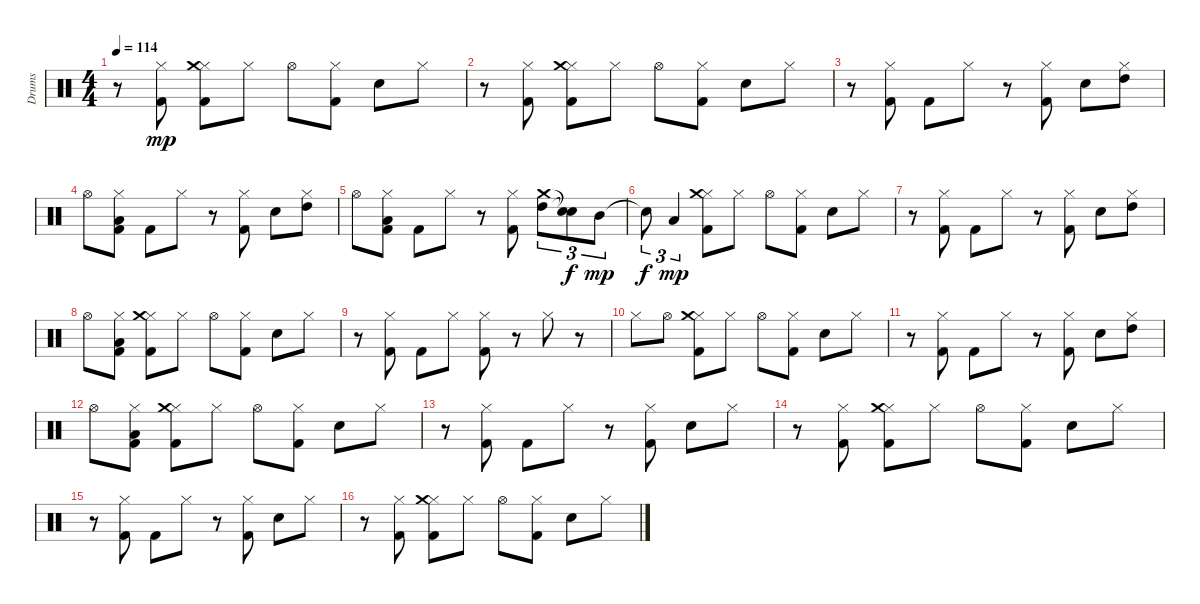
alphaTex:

\track ("Drums" "Drums") {instrument percussion}
\staff {score}
\articulation defaults
\ts (4 4)
\tempo 114
\clef neutral
\ks c
r.8{dy mp} ("Kick (hit) 2" "Hi-Hat (closed)").8 ("Kick (hit) 2" "Hi-Hat (closed)" "Crash medium (hit)").8 "Hi-Hat (closed)".8 "Hi-Hat (open)".8 ("Kick (hit) 2" "Hi-Hat (closed)").8 "Snare (hit) 2".8 "Hi-Hat (closed)".8 |
r.8 ("Kick (hit) 2" "Hi-Hat (closed)").8 ("Kick (hit) 2" "Hi-Hat (closed)" "Crash medium (hit)").8 "Hi-Hat (closed)".8 "Hi-Hat (open)".8 ("Kick (hit) 2" "Hi-Hat (closed)").8 "Snare (hit) 2".8 "Hi-Hat (closed)".8 |
r.8 ("Kick (hit) 2" "Hi-Hat (closed)").8 "Kick (hit) 2".8 "Hi-Hat (closed)".8 r.8 ("Kick (hit) 2" "Hi-Hat (closed)").8 "Snare (hit) 2".8 ("Hi-Hat (closed)" "High Tom (hit)").8 |
"Hi-Hat (open)".8 ("Kick (hit) 2" "Hi-Hat (closed)" "Low Tom (hit)").8 "Kick (hit) 2".8 "Hi-Hat (closed)".8 r.8 ("Kick (hit) 2" "Hi-Hat (closed)").8 "Snare (hit) 2".8 ("Hi-Hat (closed)" "High Tom (hit)").8 |
"Hi-Hat (open)".8 ("Kick (hit) 2" "Hi-Hat (closed)" "Low Tom (hit)").8 "Kick (hit) 2".8 "Hi-Hat (closed)".8 r.8 ("Kick (hit) 2" "Hi-Hat (closed)").8 ("High Tom (hit)" "Crash medium (hit)").8{tu (3 2)} ("Snare (hit)"{t} "Snare (hit)"{t}).8{tu (3 2) dy f} "Mid Tom (hit)".8{tu (3 2) dy mp} |
"Snare (hit)"{t}.8{tu (3 2) dy f} "Low Tom (hit)".4{tu (3 2) dy mp} ("Kick (hit) 2" "Hi-Hat (closed)" "Crash medium (hit)").8 "Hi-Hat (closed)".8 "Hi-Hat (open)".8 ("Kick (hit) 2" "Hi-Hat (closed)").8 "Snare (hit) 2".8 "Hi-Hat (closed)".8 |
r.8 ("Kick (hit) 2" "Hi-Hat (closed)").8 "Kick (hit) 2".8 "Hi-Hat (closed)".8 r.8 ("Kick (hit) 2" "Hi-Hat (closed)").8 "Snare (hit) 2".8 ("Hi-Hat (closed)" "High Tom (hit)").8 |
"Hi-Hat (open)".8 ("Kick (hit) 2" "Hi-Hat (closed)" "Low Tom (hit)").8 ("Kick (hit) 2" "Hi-Hat (closed)" "Crash medium (hit)").8 "Hi-Hat (closed)".8 "Hi-Hat (open)".8 ("Kick (hit) 2" "Hi-Hat (closed)").8 "Snare (hit) 2".8 "Hi-Hat (closed)".8 |
r.8 ("Kick (hit) 2" "Hi-Hat (closed)").8 "Kick (hit) 2".8 "Hi-Hat (closed)".8 ("Kick (hit) 2" "Hi-Hat (closed)").8 r.8 "Hi-Hat (closed)".8 r.8 |
"Hi-Hat (closed)".8 "Hi-Hat (open)".8 ("Kick (hit) 2" "Hi-Hat (closed)" "Crash medium (hit)").8 "Hi-Hat (closed)".8 "Hi-Hat (open)".8 ("Kick (hit) 2" "Hi-Hat (closed)").8 "Snare (hit) 2".8 "Hi-Hat (closed)".8 |
r.8 ("Kick (hit) 2" "Hi-Hat (closed)").8 "Kick (hit) 2".8 "Hi-Hat (closed)".8 r.8 ("Kick (hit) 2" "Hi-Hat (closed)").8 "Snare (hit) 2".8 ("Hi-Hat (closed)" "High Tom (hit)").8 |
"Hi-Hat (open)".8 ("Kick (hit) 2" "Hi-Hat (closed)" "Low Tom (hit)").8 ("Kick (hit) 2" "Hi-Hat (closed)" "Crash medium (hit)").8 "Hi-Hat (closed)".8 "Hi-Hat (open)".8 ("Kick (hit) 2" "Hi-Hat (closed)").8 "Snare (hit) 2".8 "Hi-Hat (closed)".8 |
r.8 ("Kick (hit) 2" "Hi-Hat (closed)").8 "Kick (hit) 2".8 "Hi-Hat (closed)".8 r.8 ("Kick (hit) 2" "Hi-Hat (closed)").8 "Snare (hit) 2".8 "Hi-Hat (closed)".8 |
r.8 ("Kick (hit) 2" "Hi-Hat (closed)").8 ("Kick (hit) 2" "Hi-Hat (closed)" "Crash medium (hit)").8 "Hi-Hat (closed)".8 "Hi-Hat (open)".8 ("Kick (hit) 2" "Hi-Hat (closed)").8 "Snare (hit) 2".8 "Hi-Hat (closed)".8 |
r.8 ("Kick (hit) 2" "Hi-Hat (closed)").8 "Kick (hit) 2".8 "Hi-Hat (closed)".8 r.8 ("Kick (hit) 2" "Hi-Hat (closed)").8 "Snare (hit) 2".8 "Hi-Hat (closed)".8 |
r.8 ("Kick (hit) 2" "Hi-Hat (closed)").8 ("Kick (hit) 2" "Hi-Hat (closed)" "Crash medium (hit)").8 "Hi-Hat (closed)".8 "Hi-Hat (open)".8 ("Kick (hit) 2" "Hi-Hat (closed)").8 "Snare (hit) 2".8 "Hi-Hat (closed)".8
